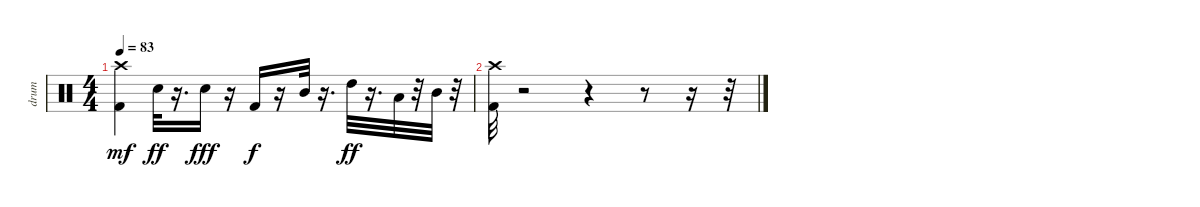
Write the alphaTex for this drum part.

\track ("drum" "drum") {instrument percussion}
\staff {score}
\articulation defaults
\ts (4 4)
\tempo 83
\clef neutral
\ks c
("Kick (hit) 2" "Crash high (hit)").4{dy mf} "Electric Snare (hit)".32{dy ff} r.16{d} "Electric Snare (hit)".16{dy fff} r.16 "Kick (hit) 2".16{dy f} r.16 "Mid Tom (hit)".32 r.16{d} "High Tom (hit)".32{dy ff} r.16{d} "Low Tom (hit)".32 r.32 "Mid Tom (hit)".32 r.32 |
("Kick (hit) 2" "Crash high (hit)").32 r.2 r.4 r.8 r.16 r.32
